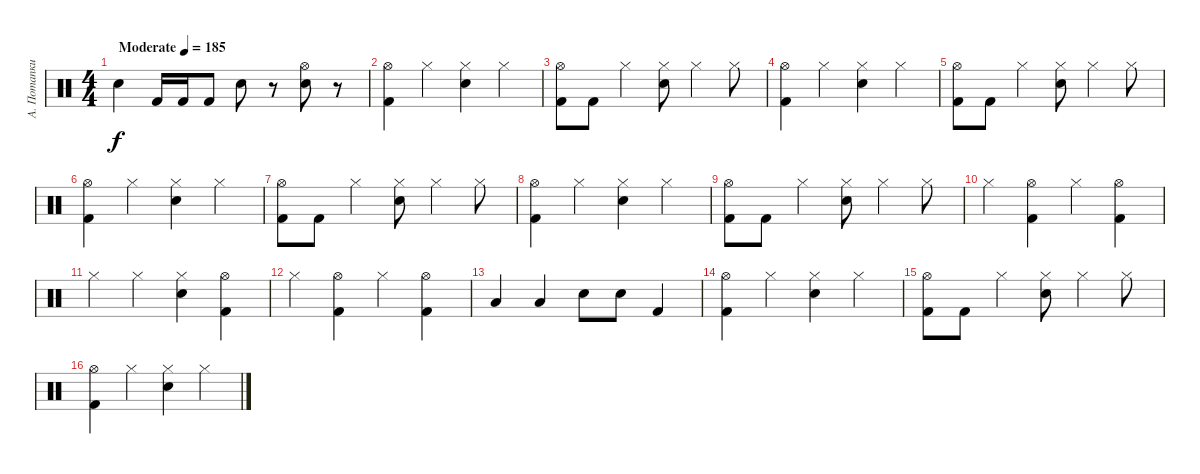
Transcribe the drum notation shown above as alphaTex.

\track ("А. Потапкин" "А. Потапки") {instrument percussion}
\staff {score}
\articulation defaults
\ts (4 4)
\tempo (185 "Moderate")
\clef neutral
\ks c "Electric Snare (hit)".4{dy f} "Kick (hit) 2".16 "Kick (hit) 2".16 "Kick (hit) 2".8 "Snare (hit) 2".8
r.8 ("Hi-Hat (open)" "Snare (hit) 2").8 r.8 |
("Hi-Hat (open)" "Kick (hit) 2").4 "Hi-Hat (closed)".4 ("Hi-Hat (closed)" "Snare (hit) 2").4 "Hi-Hat (closed)".4 |
("Hi-Hat (open)" "Kick (hit) 2").8 "Kick (hit) 2".8 "Hi-Hat (closed)".4 ("Hi-Hat (closed)" "Snare (hit) 2").8 "Hi-Hat (closed)".4 "Hi-Hat (closed)".8 |
("Hi-Hat (open)" "Kick (hit) 2").4 "Hi-Hat (closed)".4 ("Hi-Hat (closed)" "Snare (hit) 2").4 "Hi-Hat (closed)".4 |
("Hi-Hat (open)" "Kick (hit) 2").8 "Kick (hit) 2".8 "Hi-Hat (closed)".4 ("Hi-Hat (closed)" "Snare (hit) 2").8 "Hi-Hat (closed)".4 "Hi-Hat (closed)".8 |
("Hi-Hat (open)" "Kick (hit) 2").4 "Hi-Hat (closed)".4 ("Hi-Hat (closed)" "Snare (hit) 2").4 "Hi-Hat (closed)".4 |
("Hi-Hat (open)" "Kick (hit) 2").8 "Kick (hit) 2".8 "Hi-Hat (closed)".4 ("Hi-Hat (closed)" "Snare (hit) 2").8 "Hi-Hat (closed)".4 "Hi-Hat (closed)".8 |
("Hi-Hat (open)" "Kick (hit) 2").4 "Hi-Hat (closed)".4 ("Hi-Hat (closed)" "Snare (hit) 2").4 "Hi-Hat (closed)".4 |
("Hi-Hat (open)" "Kick (hit) 2").8 "Kick (hit) 2".8 "Hi-Hat (closed)".4 ("Hi-Hat (closed)" "Snare (hit) 2").8 "Hi-Hat (closed)".4 "Hi-Hat (closed)".8 |
"Hi-Hat (closed)".4 ("Hi-Hat (open)" "Kick (hit) 2").4 "Hi-Hat (closed)".4 ("Hi-Hat (open)" "Kick (hit) 2").4 |
"Hi-Hat (closed)".4 "Hi-Hat (closed)".4 ("Hi-Hat (closed)" "Snare (hit) 2").4 ("Hi-Hat (open)" "Kick (hit) 2").4 |
"Hi-Hat (closed)".4 ("Hi-Hat (open)" "Kick (hit) 2").4 "Hi-Hat (closed)".4 ("Hi-Hat (open)" "Kick (hit) 2").4 |
"Low Floor Tom (hit)".4 "Low Floor Tom (hit)".4 "Snare (hit) 2".8 "Snare (hit) 2".8 "Kick (hit) 2".4 |
("Hi-Hat (open)" "Kick (hit) 2").4 "Hi-Hat (closed)".4 ("Hi-Hat (closed)" "Snare (hit) 2").4 "Hi-Hat (closed)".4 |
("Hi-Hat (open)" "Kick (hit) 2").8 "Kick (hit) 2".8 "Hi-Hat (closed)".4 ("Hi-Hat (closed)" "Snare (hit) 2").8 "Hi-Hat (closed)".4 "Hi-Hat (closed)".8 |
("Hi-Hat (open)" "Kick (hit) 2").4 "Hi-Hat (closed)".4 ("Hi-Hat (closed)" "Snare (hit) 2").4 "Hi-Hat (closed)".4
